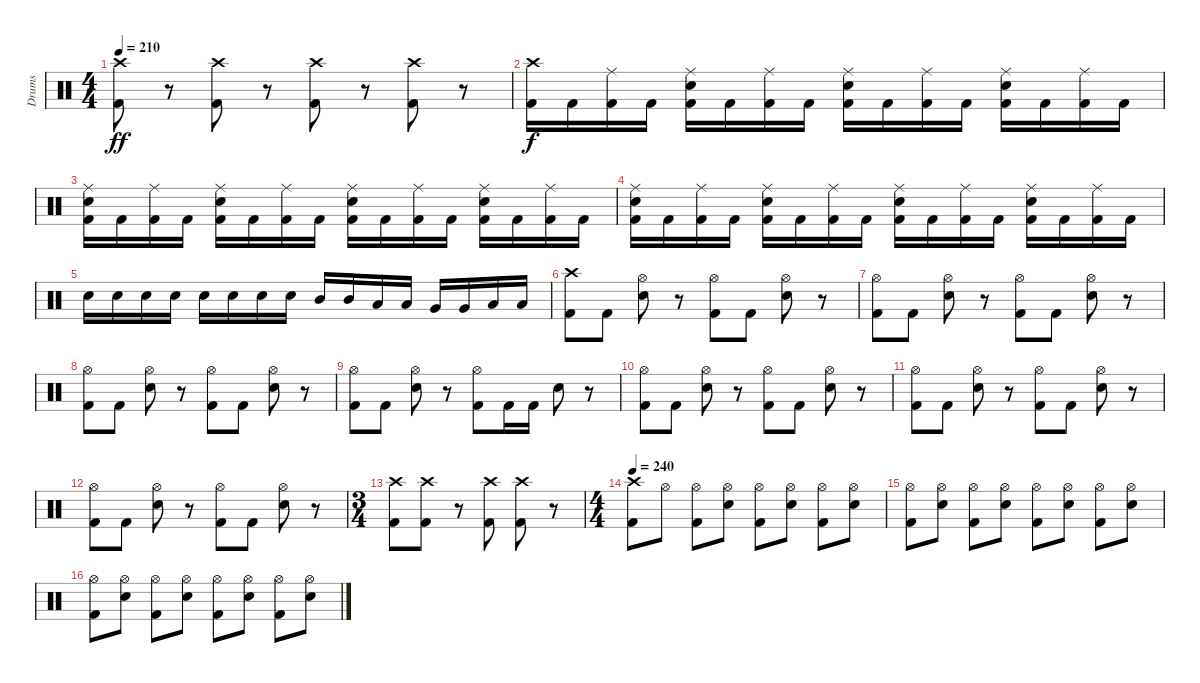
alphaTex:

\track ("Drums" "Drums") {instrument percussion}
\staff {score}
\articulation defaults
\ts (4 4)
\tempo 210
\clef neutral
\ks c
("Crash high (hit)" "Kick (hit) 2").8{dy ff} r.8 ("Crash high (hit)" "Kick (hit) 2").8 r.8 ("Crash high (hit)" "Kick (hit) 2").8 r.8 ("Crash high (hit)" "Kick (hit) 2").8 r.8 |
("Crash high (hit)" "Kick (hit) 2").16{dy f} "Kick (hit) 2".16 ("Ride (middle)" "Kick (hit) 2").16 "Kick (hit) 2".16 ("Ride (middle)" "Snare (hit) 2" "Kick (hit) 2").16 "Kick (hit) 2".16 ("Ride (middle)" "Kick (hit) 2").16 "Kick (hit) 2".16 ("Ride (middle)" "Snare (hit) 2" "Kick (hit) 2").16 "Kick (hit) 2".16 ("Ride (middle)" "Kick (hit) 2").16 "Kick (hit) 2".16 ("Ride (middle)" "Snare (hit) 2" "Kick (hit) 2").16 "Kick (hit) 2".16 ("Ride (middle)" "Kick (hit) 2").16 "Kick (hit) 2".16 |
("Ride (middle)" "Snare (hit) 2" "Kick (hit) 2").16 "Kick (hit) 2".16 ("Ride (middle)" "Kick (hit) 2").16 "Kick (hit) 2".16 ("Ride (middle)" "Snare (hit) 2" "Kick (hit) 2").16 "Kick (hit) 2".16 ("Ride (middle)" "Kick (hit) 2").16 "Kick (hit) 2".16 ("Ride (middle)" "Snare (hit) 2" "Kick (hit) 2").16 "Kick (hit) 2".16 ("Ride (middle)" "Kick (hit) 2").16 "Kick (hit) 2".16 ("Ride (middle)" "Snare (hit) 2" "Kick (hit) 2").16 "Kick (hit) 2".16 ("Ride (middle)" "Kick (hit) 2").16 "Kick (hit) 2".16 |
("Ride (middle)" "Snare (hit) 2" "Kick (hit) 2").16 "Kick (hit) 2".16 ("Ride (middle)" "Kick (hit) 2").16 "Kick (hit) 2".16 ("Ride (middle)" "Snare (hit) 2" "Kick (hit) 2").16 "Kick (hit) 2".16 ("Ride (middle)" "Kick (hit) 2").16 "Kick (hit) 2".16 ("Ride (middle)" "Snare (hit) 2" "Kick (hit) 2").16 "Kick (hit) 2".16 ("Ride (middle)" "Kick (hit) 2").16 "Kick (hit) 2".16 ("Ride (middle)" "Snare (hit) 2" "Kick (hit) 2").16 "Kick (hit) 2".16 ("Ride (middle)" "Kick (hit) 2").16 "Kick (hit) 2".16 |
"Snare (hit) 2".16 "Snare (hit) 2".16 "Snare (hit) 2".16 "Snare (hit) 2".16 "Snare (hit) 2".16 "Snare (hit) 2".16 "Snare (hit) 2".16 "Snare (hit) 2".16 "Mid Tom (hit)".16 "Mid Tom (hit)".16 "Low Tom (hit)".16 "Low Tom (hit)".16 "Very Low Tom (hit)".16 "Very Low Tom (hit)".16 "Low Floor Tom (hit)".16 "Low Floor Tom (hit)".16 |
("Crash high (hit)" "Kick (hit) 2").8 "Kick (hit) 2".8 ("Hi-Hat (open)" "Snare (hit) 2").8 r.8 ("Hi-Hat (open)" "Kick (hit) 2").8 "Kick (hit) 2".8 ("Hi-Hat (open)" "Snare (hit) 2").8 r.8 |
("Hi-Hat (open)" "Kick (hit) 2").8 "Kick (hit) 2".8 ("Hi-Hat (open)" "Snare (hit) 2").8 r.8 ("Hi-Hat (open)" "Kick (hit) 2").8 "Kick (hit) 2".8 ("Hi-Hat (open)" "Snare (hit) 2").8 r.8 |
("Hi-Hat (open)" "Kick (hit) 2").8 "Kick (hit) 2".8 ("Hi-Hat (open)" "Snare (hit) 2").8 r.8 ("Hi-Hat (open)" "Kick (hit) 2").8 "Kick (hit) 2".8 ("Hi-Hat (open)" "Snare (hit) 2").8 r.8 |
("Hi-Hat (open)" "Kick (hit) 2").8 "Kick (hit) 2".8 ("Hi-Hat (open)" "Snare (hit) 2").8 r.8 ("Hi-Hat (open)" "Kick (hit) 2").8 "Kick (hit) 2".16 "Kick (hit) 2".16 "Snare (hit) 2".8 r.8 |
("Hi-Hat (open)" "Kick (hit) 2").8 "Kick (hit) 2".8 ("Hi-Hat (open)" "Snare (hit) 2").8 r.8 ("Hi-Hat (open)" "Kick (hit) 2").8 "Kick (hit) 2".8 ("Hi-Hat (open)" "Snare (hit) 2").8 r.8 |
("Hi-Hat (open)" "Kick (hit) 2").8 "Kick (hit) 2".8 ("Hi-Hat (open)" "Snare (hit) 2").8 r.8 ("Hi-Hat (open)" "Kick (hit) 2").8 "Kick (hit) 2".8 ("Hi-Hat (open)" "Snare (hit) 2").8 r.8 |
("Hi-Hat (open)" "Kick (hit) 2").8 "Kick (hit) 2".8 ("Hi-Hat (open)" "Snare (hit) 2").8 r.8 ("Hi-Hat (open)" "Kick (hit) 2").8 "Kick (hit) 2".8 ("Hi-Hat (open)" "Snare (hit) 2").8 r.8 |
\ts (3 4)
("Crash high (hit)" "Kick (hit) 2").8 ("Crash high (hit)" "Kick (hit) 2").8 r.8 ("Crash high (hit)" "Kick (hit) 2").8 ("Crash high (hit)" "Kick (hit) 2").8 r.8 |
\ts (4 4)
\tempo 240
("Crash high (hit)" "Kick (hit) 2").8 "Hi-Hat (open)".8 ("Hi-Hat (open)" "Kick (hit) 2").8 ("Hi-Hat (open)" "Snare (hit) 2").8 ("Hi-Hat (open)" "Kick (hit) 2").8 ("Hi-Hat (open)" "Snare (hit) 2").8 ("Hi-Hat (open)" "Kick (hit) 2").8 ("Hi-Hat (open)" "Snare (hit) 2").8 |
("Hi-Hat (open)" "Kick (hit) 2").8 ("Hi-Hat (open)" "Snare (hit) 2").8 ("Hi-Hat (open)" "Kick (hit) 2").8 ("Hi-Hat (open)" "Snare (hit) 2").8 ("Hi-Hat (open)" "Kick (hit) 2").8 ("Hi-Hat (open)" "Snare (hit) 2").8 ("Hi-Hat (open)" "Kick (hit) 2").8 ("Hi-Hat (open)" "Snare (hit) 2").8 |
("Hi-Hat (open)" "Kick (hit) 2").8 ("Hi-Hat (open)" "Snare (hit) 2").8 ("Hi-Hat (open)" "Kick (hit) 2").8 ("Hi-Hat (open)" "Snare (hit) 2").8 ("Hi-Hat (open)" "Kick (hit) 2").8 ("Hi-Hat (open)" "Snare (hit) 2").8 ("Hi-Hat (open)" "Kick (hit) 2").8 ("Hi-Hat (open)" "Snare (hit) 2").8
